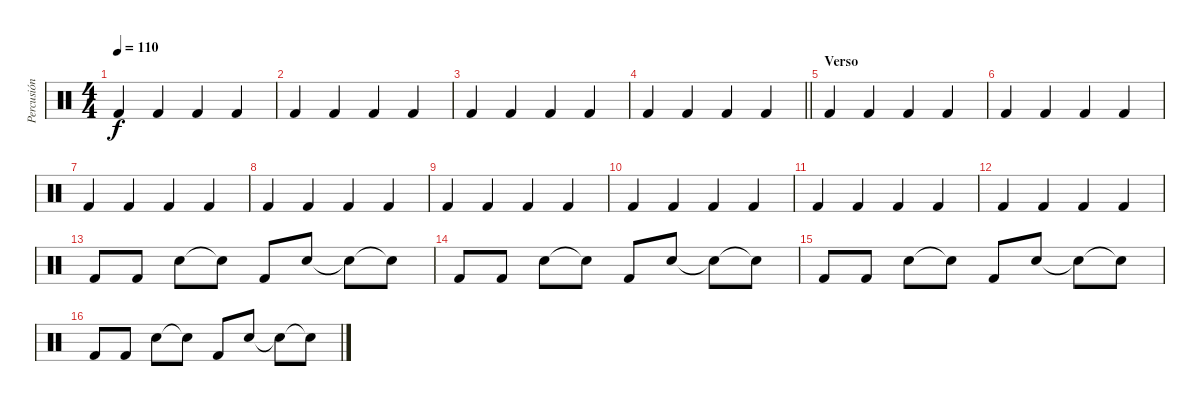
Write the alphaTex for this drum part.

\track ("Percusión" "Percusión") {instrument percussion}
\staff {score}
\articulation defaults
\ts (4 4)
\tempo 110
\clef neutral
\ks c "Kick (hit) 2".4{dy f} "Kick (hit) 2".4 "Kick (hit) 2".4 "Kick (hit) 2".4
|
"Kick (hit) 2".4 "Kick (hit) 2".4 "Kick (hit) 2".4 "Kick (hit) 2".4 |
"Kick (hit) 2".4 "Kick (hit) 2".4 "Kick (hit) 2".4 "Kick (hit) 2".4 |
\barLineRight lightlight "Kick (hit) 2".4 "Kick (hit) 2".4 "Kick (hit) 2".4 "Kick (hit) 2".4
|
\section ("" "Verso")
"Kick (hit) 2".4 "Kick (hit) 2".4 "Kick (hit) 2".4 "Kick (hit) 2".4 |
"Kick (hit) 2".4 "Kick (hit) 2".4 "Kick (hit) 2".4 "Kick (hit) 2".4 |
"Kick (hit) 2".4 "Kick (hit) 2".4 "Kick (hit) 2".4 "Kick (hit) 2".4 |
"Kick (hit) 2".4 "Kick (hit) 2".4 "Kick (hit) 2".4 "Kick (hit) 2".4 |
"Kick (hit) 2".4 "Kick (hit) 2".4 "Kick (hit) 2".4 "Kick (hit) 2".4 |
"Kick (hit) 2".4 "Kick (hit) 2".4 "Kick (hit) 2".4 "Kick (hit) 2".4 |
"Kick (hit) 2".4 "Kick (hit) 2".4 "Kick (hit) 2".4 "Kick (hit) 2".4 |
"Kick (hit) 2".4 "Kick (hit) 2".4 "Kick (hit) 2".4 "Kick (hit) 2".4 |
"Kick (hit) 2".8 "Kick (hit) 2".8 "Electric Snare (hit)".8 "Snare (hit)"{t}.8 "Kick (hit) 2".8 "Electric Snare (hit)".8 "Electric Snare (hit)"{t}.8 "Snare (hit)"{t}.8 |
"Kick (hit) 2".8 "Kick (hit) 2".8 "Electric Snare (hit)".8 "Snare (hit)"{t}.8 "Kick (hit) 2".8 "Electric Snare (hit)".8 "Electric Snare (hit)"{t}.8 "Snare (hit)"{t}.8 |
"Kick (hit) 2".8 "Kick (hit) 2".8 "Electric Snare (hit)".8 "Snare (hit)"{t}.8 "Kick (hit) 2".8 "Electric Snare (hit)".8 "Electric Snare (hit)"{t}.8 "Snare (hit)"{t}.8 |
"Kick (hit) 2".8 "Kick (hit) 2".8 "Electric Snare (hit)".8 "Snare (hit)"{t}.8 "Kick (hit) 2".8 "Electric Snare (hit)".8 "Electric Snare (hit)"{t}.8 "Snare (hit)"{t}.8
